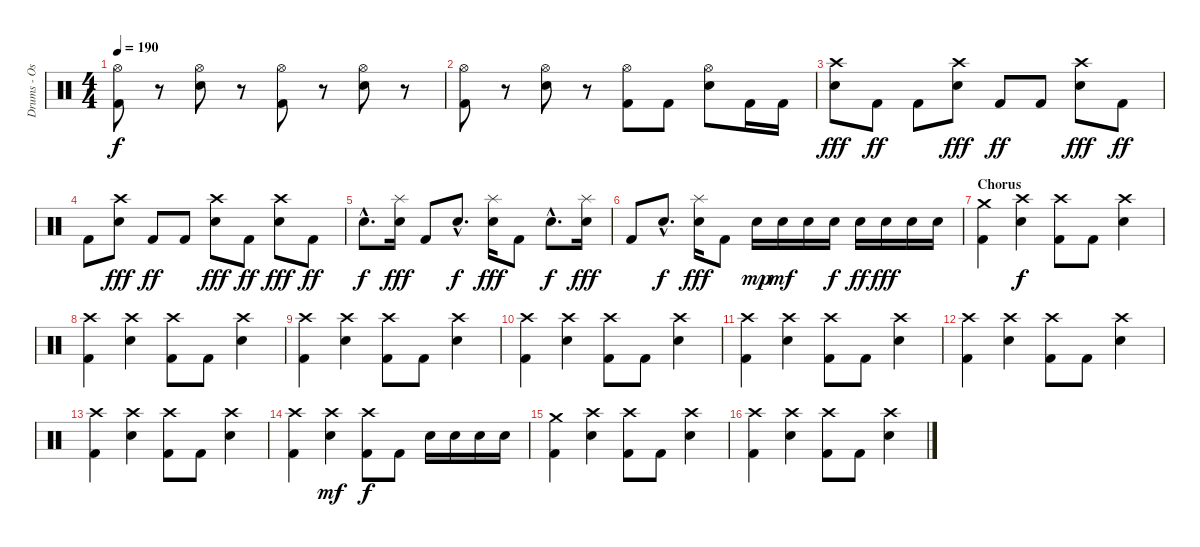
\track ("Drums - Oskar Karlsson" "Drums - Os") {instrument percussion}
\staff {score}
\articulation defaults
\ts (4 4)
\tempo 190
\clef neutral
\ks c
("Hi-Hat (open)" "Kick (hit) 2").8{dy f} r.8 ("Hi-Hat (open)" "Electric Snare (hit)").8 r.8 ("Hi-Hat (open)" "Kick (hit) 2").8 r.8 ("Hi-Hat (open)" "Electric Snare (hit)").8 r.8 |
("Hi-Hat (open)" "Kick (hit) 2").8 r.8 ("Hi-Hat (open)" "Electric Snare (hit)").8 r.8 ("Hi-Hat (open)" "Kick (hit) 2").8 "Kick (hit) 2".8 ("Hi-Hat (open)" "Electric Snare (hit)").8 "Kick (hit) 2".16 "Kick (hit) 2".16 |
("Crash high (hit)" "Electric Snare (hit)").8{dy fff} "Kick (hit) 2".8{dy ff} "Kick (hit) 2".8 ("Crash high (hit)" "Electric Snare (hit)").8{dy fff} "Kick (hit) 2".8{dy ff} "Kick (hit) 2".8 ("Crash high (hit)" "Electric Snare (hit)").8{dy fff} "Kick (hit) 2".8{dy ff} |
"Kick (hit) 2".8 ("Crash high (hit)" "Electric Snare (hit)").8{dy fff} "Kick (hit) 2".8{dy ff} "Kick (hit) 2".8 ("Crash high (hit)" "Electric Snare (hit)").8{dy fff} "Kick (hit) 2".8{dy ff} ("Crash high (hit)" "Electric Snare (hit)").8{dy fff} "Kick (hit) 2".8{dy ff} |
"Electric Snare (hit)"{hac}.8{d dy f} ("Splash (hit)" "Electric Snare (hit)").16{dy fff} "Kick (hit) 2".8 "Electric Snare (hit)"{hac}.8{d dy f} ("Splash (hit)" "Electric Snare (hit)").16{dy fff} "Kick (hit) 2".8 "Electric Snare (hit)"{hac}.8{d dy f} ("Splash (hit)" "Electric Snare (hit)").16{dy fff} |
"Kick (hit) 2".8 "Electric Snare (hit)"{hac}.8{d dy f} ("Splash (hit)" "Electric Snare (hit)").16{dy fff} "Kick (hit) 2".8 "Electric Snare (hit)".16{dy mp} "Electric Snare (hit)".16{dy mf} "Electric Snare (hit)".16 "Electric Snare (hit)".16{dy f} "Electric Snare (hit)".16{dy ff} "Electric Snare (hit)".16{dy fff} "Electric Snare (hit)".16 "Electric Snare (hit)".16 |
\section ("" "Chorus")
("Crash medium (hit)" "Kick (hit) 2").4 ("Crash high (hit)" "Electric Snare (hit)").4{dy f} ("Crash high (hit)" "Kick (hit) 2").8 "Kick (hit) 2".8 ("Crash high (hit)" "Electric Snare (hit)").4 |
("Crash high (hit)" "Kick (hit) 2").4 ("Crash high (hit)" "Electric Snare (hit)").4 ("Crash high (hit)" "Kick (hit) 2").8 "Kick (hit) 2".8 ("Crash high (hit)" "Electric Snare (hit)").4 |
("Crash high (hit)" "Kick (hit) 2").4 ("Crash high (hit)" "Electric Snare (hit)").4 ("Crash high (hit)" "Kick (hit) 2").8 "Kick (hit) 2".8 ("Crash high (hit)" "Electric Snare (hit)").4 |
("Crash high (hit)" "Kick (hit) 2").4 ("Crash high (hit)" "Electric Snare (hit)").4 ("Crash high (hit)" "Kick (hit) 2").8 "Kick (hit) 2".8 ("Crash high (hit)" "Electric Snare (hit)").4 |
("Crash high (hit)" "Kick (hit) 2").4 ("Crash high (hit)" "Electric Snare (hit)").4 ("Crash high (hit)" "Kick (hit) 2").8 "Kick (hit) 2".8 ("Crash high (hit)" "Electric Snare (hit)").4 |
("Crash high (hit)" "Kick (hit) 2").4 ("Crash high (hit)" "Electric Snare (hit)").4 ("Crash high (hit)" "Kick (hit) 2").8 "Kick (hit) 2".8 ("Crash high (hit)" "Electric Snare (hit)").4 |
("Crash high (hit)" "Kick (hit) 2").4 ("Crash high (hit)" "Electric Snare (hit)").4 ("Crash high (hit)" "Kick (hit) 2").8 "Kick (hit) 2".8 ("Crash high (hit)" "Electric Snare (hit)").4 |
("Crash high (hit)" "Kick (hit) 2").4 ("Crash high (hit)" "Electric Snare (hit)").4{dy mf} ("Crash high (hit)" "Kick (hit) 2").8{dy f} "Kick (hit) 2".8 "Electric Snare (hit)".16 "Electric Snare (hit)".16 "Electric Snare (hit)".16 "Electric Snare (hit)".16 |
("Crash medium (hit)" "Kick (hit) 2").4 ("Crash high (hit)" "Electric Snare (hit)").4 ("Crash high (hit)" "Kick (hit) 2").8 "Kick (hit) 2".8 ("Crash high (hit)" "Electric Snare (hit)").4 |
("Crash high (hit)" "Kick (hit) 2").4 ("Crash high (hit)" "Electric Snare (hit)").4 ("Crash high (hit)" "Kick (hit) 2").8 "Kick (hit) 2".8 ("Crash high (hit)" "Electric Snare (hit)").4
